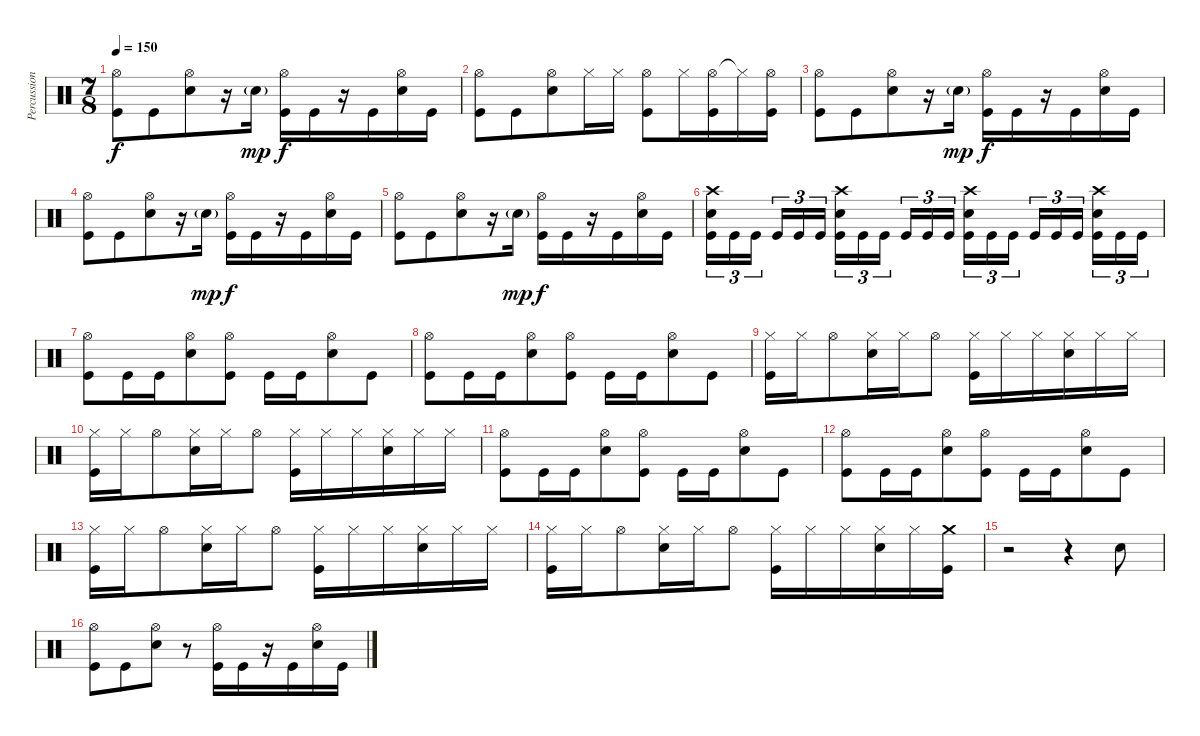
\track ("Percussion" "Percussion") {instrument percussion}
\staff {score}
\articulation defaults
\ts (7 8)
\tempo 150
\clef neutral
\ks c
("Hi-Hat (open)" "Kick (hit)").8{dy f} "Kick (hit)".8 ("Hi-Hat (open)" "Snare (hit) 2").8 r.16 "Snare (hit) 2"{g}.16{dy mp} ("Hi-Hat (open)" "Kick (hit)").16{dy f} "Kick (hit)".16 r.16 "Kick (hit)".16 ("Hi-Hat (open)" "Snare (hit) 2").16 "Kick (hit)".16 |
("Hi-Hat (open)" "Kick (hit)").8 "Kick (hit)".8 ("Hi-Hat (open)" "Snare (hit) 2").8 "Hi-Hat (closed)".16 "Hi-Hat (closed)".16 ("Hi-Hat (open)" "Kick (hit)").8 "Hi-Hat (closed)".16 ("Hi-Hat (open)" "Kick (hit)").16 "Hi-Hat (closed)"{t}.16 ("Hi-Hat (open)" "Kick (hit)").16 |
("Hi-Hat (open)" "Kick (hit)").8 "Kick (hit)".8 ("Hi-Hat (open)" "Snare (hit) 2").8 r.16 "Snare (hit) 2"{g}.16{dy mp} ("Hi-Hat (open)" "Kick (hit)").16{dy f} "Kick (hit)".16 r.16 "Kick (hit)".16 ("Hi-Hat (open)" "Snare (hit) 2").16 "Kick (hit)".16 |
("Hi-Hat (open)" "Kick (hit)").8 "Kick (hit)".8 ("Hi-Hat (open)" "Snare (hit) 2").8 r.16 "Snare (hit) 2"{g}.16{dy mp} ("Hi-Hat (open)" "Kick (hit)").16{dy f} "Kick (hit)".16 r.16 "Kick (hit)".16 ("Hi-Hat (open)" "Snare (hit) 2").16 "Kick (hit)".16 |
("Hi-Hat (open)" "Kick (hit)").8 "Kick (hit)".8 ("Hi-Hat (open)" "Snare (hit) 2").8 r.16 "Snare (hit) 2"{g}.16{dy mp} ("Hi-Hat (open)" "Kick (hit)").16{dy f} "Kick (hit)".16 r.16 "Kick (hit)".16 ("Hi-Hat (open)" "Snare (hit) 2").16 "Kick (hit)".16 |
("Crash high (hit)" "Snare (hit) 2" "Kick (hit)").16{tu (3 2)} "Kick (hit)".16{tu (3 2)} "Kick (hit)".16{tu (3 2)} "Kick (hit)".16{tu (3 2)} "Kick (hit)".16{tu (3 2)} "Kick (hit)".16{tu (3 2)} ("Crash high (hit)" "Snare (hit) 2" "Kick (hit)").16{tu (3 2)} "Kick (hit)".16{tu (3 2)} "Kick (hit)".16{tu (3 2)} "Kick (hit)".16{tu (3 2)} "Kick (hit)".16{tu (3 2)} "Kick (hit)".16{tu (3 2)} ("Crash high (hit)" "Snare (hit) 2" "Kick (hit)").16{tu (3 2)} "Kick (hit)".16{tu (3 2)} "Kick (hit)".16{tu (3 2)} "Kick (hit)".16{tu (3 2)} "Kick (hit)".16{tu (3 2)} "Kick (hit)".16{tu (3 2)} ("Crash high (hit)" "Snare (hit) 2" "Kick (hit)").16{tu (3 2)} "Kick (hit)".16{tu (3 2)} "Kick (hit)".16{tu (3 2)} |
("Hi-Hat (open)" "Kick (hit)").8 "Kick (hit)".16 "Kick (hit)".16 ("Hi-Hat (open)" "Snare (hit) 2").8 ("Hi-Hat (open)" "Kick (hit)").8 "Kick (hit)".16 "Kick (hit)".16 ("Hi-Hat (open)" "Snare (hit) 2").8 "Kick (hit)".8 |
("Hi-Hat (open)" "Kick (hit)").8 "Kick (hit)".16 "Kick (hit)".16 ("Hi-Hat (open)" "Snare (hit) 2").8 ("Hi-Hat (open)" "Kick (hit)").8 "Kick (hit)".16 "Kick (hit)".16 ("Hi-Hat (open)" "Snare (hit) 2").8 "Kick (hit)".8 |
("Hi-Hat (closed)" "Kick (hit)").16 "Hi-Hat (closed)".16 "Hi-Hat (open)".8 ("Hi-Hat (closed)" "Snare (hit) 2").16 "Hi-Hat (closed)".16 "Hi-Hat (open)".8 ("Hi-Hat (closed)" "Kick (hit)").16 "Hi-Hat (closed)".16 "Hi-Hat (closed)".16 ("Hi-Hat (closed)" "Snare (hit) 2").16 "Hi-Hat (closed)".16 "Hi-Hat (closed)".16 |
("Hi-Hat (closed)" "Kick (hit)").16 "Hi-Hat (closed)".16 "Hi-Hat (open)".8 ("Hi-Hat (closed)" "Snare (hit) 2").16 "Hi-Hat (closed)".16 "Hi-Hat (open)".8 ("Hi-Hat (closed)" "Kick (hit)").16 "Hi-Hat (closed)".16 "Hi-Hat (closed)".16 ("Hi-Hat (closed)" "Snare (hit) 2").16 "Hi-Hat (closed)".16 "Hi-Hat (closed)".16 |
("Hi-Hat (open)" "Kick (hit)").8 "Kick (hit)".16 "Kick (hit)".16 ("Hi-Hat (open)" "Snare (hit) 2").8 ("Hi-Hat (open)" "Kick (hit)").8 "Kick (hit)".16 "Kick (hit)".16 ("Hi-Hat (open)" "Snare (hit) 2").8 "Kick (hit)".8 |
("Hi-Hat (open)" "Kick (hit)").8 "Kick (hit)".16 "Kick (hit)".16 ("Hi-Hat (open)" "Snare (hit) 2").8 ("Hi-Hat (open)" "Kick (hit)").8 "Kick (hit)".16 "Kick (hit)".16 ("Hi-Hat (open)" "Snare (hit) 2").8 "Kick (hit)".8 |
("Hi-Hat (closed)" "Kick (hit)").16 "Hi-Hat (closed)".16 "Hi-Hat (open)".8 ("Hi-Hat (closed)" "Snare (hit) 2").16 "Hi-Hat (closed)".16 "Hi-Hat (open)".8 ("Hi-Hat (closed)" "Kick (hit)").16 "Hi-Hat (closed)".16 "Hi-Hat (closed)".16 ("Hi-Hat (closed)" "Snare (hit) 2").16 "Hi-Hat (closed)".16 "Hi-Hat (closed)".16 |
("Hi-Hat (closed)" "Kick (hit)").16 "Hi-Hat (closed)".16 "Hi-Hat (open)".8 ("Hi-Hat (closed)" "Snare (hit) 2").16 "Hi-Hat (closed)".16 "Hi-Hat (open)".8 ("Hi-Hat (closed)" "Kick (hit)").16 "Hi-Hat (closed)".16 "Hi-Hat (closed)".16 ("Hi-Hat (closed)" "Snare (hit) 2").16 "Hi-Hat (closed)".16 ("Crash medium (hit)" "Kick (hit)").16 |
r.2 r.4 "Snare (hit) 2".8 |
("Hi-Hat (open)" "Kick (hit)").8 "Kick (hit)".8 ("Hi-Hat (open)" "Snare (hit) 2").8 r.8 ("Hi-Hat (open)" "Kick (hit)").16 "Kick (hit)".16 r.16 "Kick (hit)".16 ("Hi-Hat (open)" "Snare (hit) 2").16 "Kick (hit)".16
